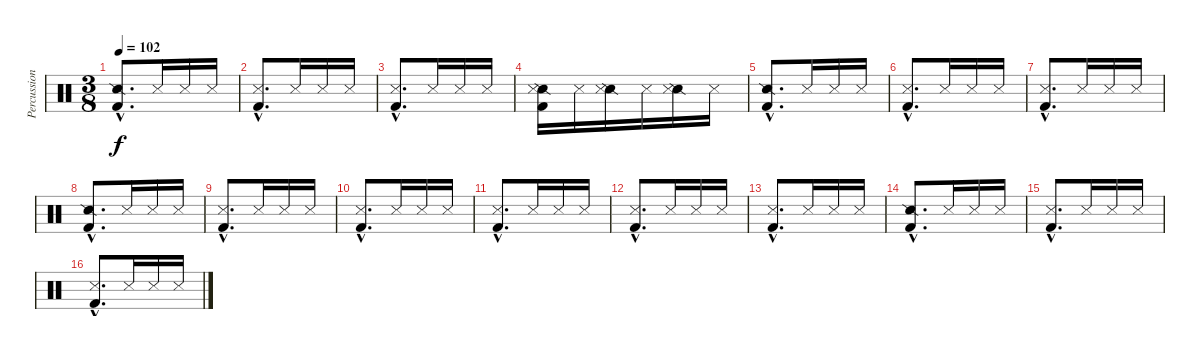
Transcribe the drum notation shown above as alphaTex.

\track ("Percussions" "Percussion") {instrument percussion}
\staff {score}
\articulation defaults
\ts (3 8)
\tempo 102
\clef neutral
\ks c
("Snare (side stick) 2"{hac} "Kick (hit) 2"{hac}).8{d dy f} "Snare (side stick) 3".16 "Snare (side stick) 3".16 "Snare (side stick) 3".16 |
("Snare (side stick) 3"{hac} "Kick (hit) 2"{hac}).8{d} "Snare (side stick) 3".16 "Snare (side stick) 3".16 "Snare (side stick) 3".16 |
("Snare (side stick) 3"{hac} "Kick (hit) 2"{hac}).8{d} "Snare (side stick) 3".16 "Snare (side stick) 3".16 "Snare (side stick) 3".16 |
("Snare (side stick) 2" "Snare (side stick) 3" "Kick (hit) 2").16 "Snare (side stick) 3".16 ("Snare (side stick) 2" "Snare (side stick) 3").16 "Snare (side stick) 3".16 ("Snare (side stick) 2" "Snare (side stick) 3").16 "Snare (side stick) 3".16 |
("Snare (side stick) 2"{hac} "Kick (hit) 2"{hac}).8{d} "Snare (side stick) 3".16 "Snare (side stick) 3".16 "Snare (side stick) 3".16 |
("Snare (side stick) 3"{hac} "Kick (hit) 2"{hac}).8{d} "Snare (side stick) 3".16 "Snare (side stick) 3".16 "Snare (side stick) 3".16 |
("Snare (side stick) 3"{hac} "Kick (hit) 2"{hac}).8{d} "Snare (side stick) 3".16 "Snare (side stick) 3".16 "Snare (side stick) 3".16 |
("Snare (side stick) 2"{hac} "Kick (hit) 2"{hac}).8{d} "Snare (side stick) 3".16 "Snare (side stick) 3".16 "Snare (side stick) 3".16 |
("Snare (side stick) 3"{hac} "Kick (hit) 2"{hac}).8{d} "Snare (side stick) 3".16 "Snare (side stick) 3".16 "Snare (side stick) 3".16 |
("Snare (side stick) 3"{hac} "Kick (hit) 2"{hac}).8{d} "Snare (side stick) 3".16 "Snare (side stick) 3".16 "Snare (side stick) 3".16 |
("Snare (side stick) 3"{hac} "Kick (hit) 2"{hac}).8{d} "Snare (side stick) 3".16 "Snare (side stick) 3".16 "Snare (side stick) 3".16 |
("Snare (side stick) 3"{hac} "Kick (hit) 2"{hac}).8{d} "Snare (side stick) 3".16 "Snare (side stick) 3".16 "Snare (side stick) 3".16 |
("Snare (side stick) 3"{hac} "Kick (hit) 2"{hac}).8{d} "Snare (side stick) 3".16 "Snare (side stick) 3".16 "Snare (side stick) 3".16 |
("Snare (side stick) 2"{hac} "Kick (hit) 2"{hac}).8{d} "Snare (side stick) 3".16 "Snare (side stick) 3".16 "Snare (side stick) 3".16 |
("Snare (side stick) 3"{hac} "Kick (hit) 2"{hac}).8{d} "Snare (side stick) 3".16 "Snare (side stick) 3".16 "Snare (side stick) 3".16 |
("Snare (side stick) 3"{hac} "Kick (hit) 2"{hac}).8{d} "Snare (side stick) 3".16 "Snare (side stick) 3".16 "Snare (side stick) 3".16
